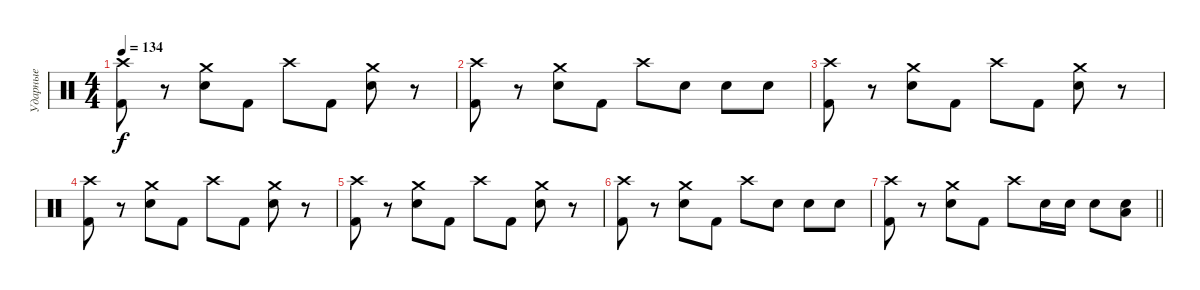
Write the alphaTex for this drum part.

\track ("Ударные" "Ударные") {instrument percussion}
\staff {score}
\articulation defaults
\ts (4 4)
\tempo 134
\clef neutral
\ks c
("Crash high (hit)" "Kick (hit) 2").8{dy f} r.8 ("Crash medium (hit)" "Snare (hit) 2").8 "Kick (hit) 2".8 "Crash high (hit)".8 "Kick (hit) 2".8 ("Crash medium (hit)" "Snare (hit) 2").8 r.8 |
("Crash high (hit)" "Kick (hit) 2").8 r.8 ("Crash medium (hit)" "Snare (hit) 2").8 "Kick (hit) 2".8 "Crash high (hit)".8 "Snare (hit) 2".8 "Snare (hit) 2".8 "Snare (hit) 2".8 |
("Crash high (hit)" "Kick (hit) 2").8 r.8 ("Crash medium (hit)" "Snare (hit) 2").8 "Kick (hit) 2".8 "Crash high (hit)".8 "Kick (hit) 2".8 ("Crash medium (hit)" "Snare (hit) 2").8 r.8 |
("Crash high (hit)" "Kick (hit) 2").8 r.8 ("Crash medium (hit)" "Snare (hit) 2").8 "Kick (hit) 2".8 "Crash high (hit)".8 "Kick (hit) 2".8 ("Crash medium (hit)" "Snare (hit) 2").8 r.8 |
("Crash high (hit)" "Kick (hit) 2").8 r.8 ("Crash medium (hit)" "Snare (hit) 2").8 "Kick (hit) 2".8 "Crash high (hit)".8 "Kick (hit) 2".8 ("Crash medium (hit)" "Snare (hit) 2").8 r.8 |
("Crash high (hit)" "Kick (hit) 2").8 r.8 ("Crash medium (hit)" "Snare (hit) 2").8 "Kick (hit) 2".8 "Crash high (hit)".8 "Snare (hit) 2".8 "Snare (hit) 2".8 "Snare (hit) 2".8 |
\barLineRight lightlight
("Crash high (hit)" "Kick (hit) 2").8 r.8 ("Crash medium (hit)" "Snare (hit) 2").8 "Kick (hit) 2".8 "Crash high (hit)".8 "Snare (hit) 2".16 "Snare (hit) 2".16 "Snare (hit) 2".8 ("Low Floor Tom (hit)" "Snare (hit) 2").8
